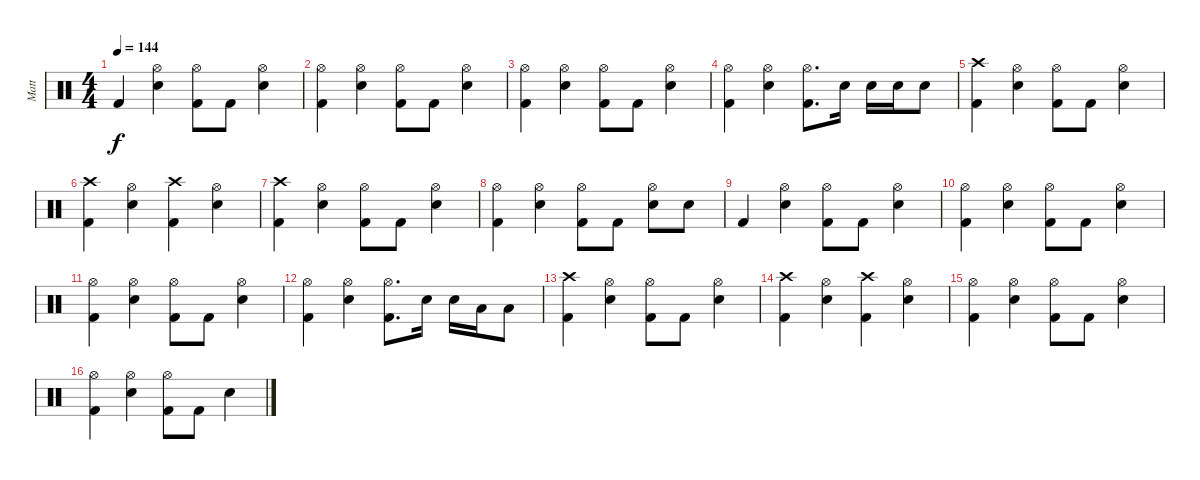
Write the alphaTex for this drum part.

\track ("Matt" "Matt") {instrument percussion}
\staff {score}
\articulation defaults
\ts (4 4)
\tempo 144
\clef neutral
\ks c "Kick (hit) 2".4{dy f}
("Hi-Hat (open)" "Electric Snare (hit)").4 ("Hi-Hat (open)" "Kick (hit) 2").8 "Kick (hit) 2".8 ("Hi-Hat (open)" "Electric Snare (hit)").4 |
("Hi-Hat (open)" "Kick (hit) 2").4 ("Hi-Hat (open)" "Electric Snare (hit)").4 ("Hi-Hat (open)" "Kick (hit) 2").8 "Kick (hit) 2".8 ("Hi-Hat (open)" "Electric Snare (hit)").4 |
("Hi-Hat (open)" "Kick (hit) 2").4 ("Hi-Hat (open)" "Electric Snare (hit)").4 ("Hi-Hat (open)" "Kick (hit) 2").8 "Kick (hit) 2".8 ("Hi-Hat (open)" "Electric Snare (hit)").4 |
("Hi-Hat (open)" "Kick (hit) 2").4 ("Hi-Hat (open)" "Electric Snare (hit)").4 ("Hi-Hat (open)" "Kick (hit) 2").8{d} "Electric Snare (hit)".16 "Electric Snare (hit)".16 "Electric Snare (hit)".16 "Electric Snare (hit)".8 |
("Crash high (hit)" "Kick (hit) 2").4 ("Hi-Hat (open)" "Electric Snare (hit)").4 ("Hi-Hat (open)" "Kick (hit) 2").8 "Kick (hit) 2".8 ("Hi-Hat (open)" "Electric Snare (hit)").4 |
("Crash high (hit)" "Kick (hit) 2").4 ("Hi-Hat (open)" "Electric Snare (hit)").4 ("Crash high (hit)" "Kick (hit) 2").4 ("Hi-Hat (open)" "Electric Snare (hit)").4 |
("Crash high (hit)" "Kick (hit) 2").4 ("Hi-Hat (open)" "Electric Snare (hit)").4 ("Hi-Hat (open)" "Kick (hit) 2").8 "Kick (hit) 2".8 ("Hi-Hat (open)" "Electric Snare (hit)").4 |
("Hi-Hat (open)" "Kick (hit) 2").4 ("Hi-Hat (open)" "Electric Snare (hit)").4 ("Hi-Hat (open)" "Kick (hit) 2").8 "Kick (hit) 2".8 ("Hi-Hat (open)" "Electric Snare (hit)").8 "Electric Snare (hit)".8 |
"Kick (hit) 2".4 ("Hi-Hat (open)" "Electric Snare (hit)").4 ("Hi-Hat (open)" "Kick (hit) 2").8 "Kick (hit) 2".8 ("Hi-Hat (open)" "Electric Snare (hit)").4 |
("Hi-Hat (open)" "Kick (hit) 2").4 ("Hi-Hat (open)" "Electric Snare (hit)").4 ("Hi-Hat (open)" "Kick (hit) 2").8 "Kick (hit) 2".8 ("Hi-Hat (open)" "Electric Snare (hit)").4 |
("Hi-Hat (open)" "Kick (hit) 2").4 ("Hi-Hat (open)" "Electric Snare (hit)").4 ("Hi-Hat (open)" "Kick (hit) 2").8 "Kick (hit) 2".8 ("Hi-Hat (open)" "Electric Snare (hit)").4 |
("Hi-Hat (open)" "Kick (hit) 2").4 ("Hi-Hat (open)" "Electric Snare (hit)").4 ("Hi-Hat (open)" "Kick (hit) 2").8{d} "Electric Snare (hit)".16 "Electric Snare (hit)".16 "Low Tom (hit)".16 "Low Tom (hit)".8 |
("Crash high (hit)" "Kick (hit) 2").4 ("Hi-Hat (open)" "Electric Snare (hit)").4 ("Hi-Hat (open)" "Kick (hit) 2").8 "Kick (hit) 2".8 ("Hi-Hat (open)" "Electric Snare (hit)").4 |
("Crash high (hit)" "Kick (hit) 2").4 ("Hi-Hat (open)" "Electric Snare (hit)").4 ("Crash high (hit)" "Kick (hit) 2").4 ("Hi-Hat (open)" "Electric Snare (hit)").4 |
("Hi-Hat (open)" "Kick (hit) 2").4 ("Hi-Hat (open)" "Electric Snare (hit)").4 ("Hi-Hat (open)" "Kick (hit) 2").8 "Kick (hit) 2".8 ("Hi-Hat (open)" "Electric Snare (hit)").4 |
("Hi-Hat (open)" "Kick (hit) 2").4 ("Hi-Hat (open)" "Electric Snare (hit)").4 ("Hi-Hat (open)" "Kick (hit) 2").8 "Kick (hit) 2".8 "Electric Snare (hit)".4
